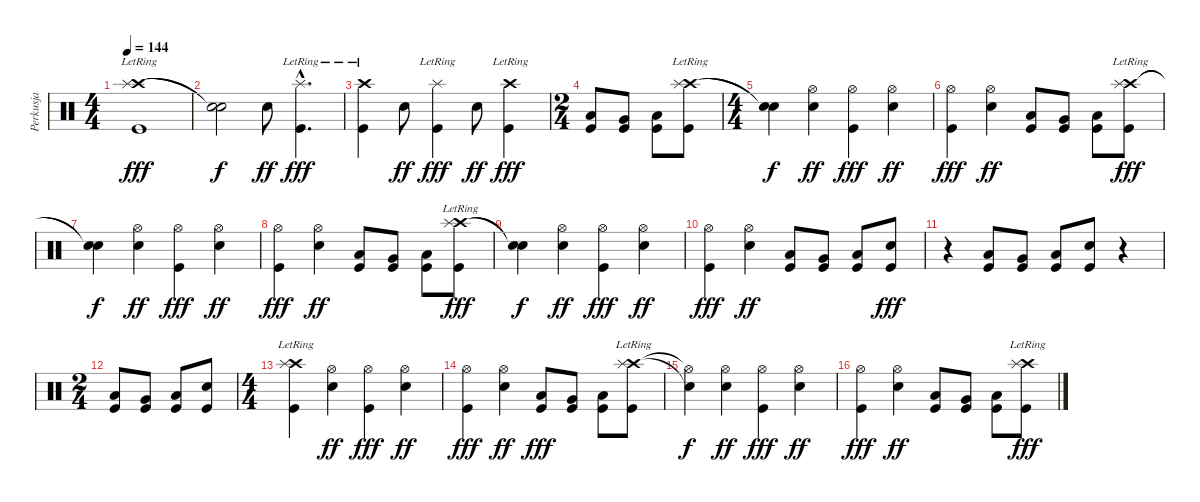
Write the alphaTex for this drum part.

\track ("Perkusja" "Perkusja") {instrument percussion}
\staff {score}
\articulation defaults
\ts (4 4)
\tempo 144
\clef neutral
\ks c
("Crash high (hit)"{lr} "Splash (hit)"{lr} "Kick (hit)").1{dy fff} |
("Snare (hit)"{t} "Snare (hit)"{t}).2{dy f} "Electric Snare (hit)".8{dy ff} ("Splash (hit)"{hac lr} "Kick (hit)"{hac}).4{d dy fff} |
("Crash high (hit)"{lr} "Kick (hit)").4 "Electric Snare (hit)".8{dy ff} ("Splash (hit)"{lr} "Kick (hit)").4{dy fff} "Electric Snare (hit)".8{dy ff} ("Crash high (hit)"{lr} "Kick (hit)").4{dy fff} |
\ts (2 4)
("Low Tom (hit)" "Kick (hit)").8 ("Very Low Tom (hit)" "Kick (hit)").8 ("Low Floor Tom (hit)" "Kick (hit)").8 ("Crash high (hit)"{lr} "Splash (hit)"{lr} "Kick (hit)").8 |
\ts (4 4)
("Snare (hit)"{t} "Snare (hit)"{t}).4{dy f} ("Hi-Hat (open)" "Electric Snare (hit)").4{dy ff} ("Hi-Hat (open)" "Kick (hit)").4{dy fff} ("Hi-Hat (open)" "Electric Snare (hit)").4{dy ff} |
("Hi-Hat (open)" "Kick (hit)").4{dy fff} ("Hi-Hat (open)" "Electric Snare (hit)").4{dy ff} ("Low Tom (hit)" "Kick (hit)").8 ("Very Low Tom (hit)" "Kick (hit)").8 ("Low Floor Tom (hit)" "Kick (hit)").8 ("Crash high (hit)"{lr} "Splash (hit)"{lr} "Kick (hit)").8{dy fff} |
("Snare (hit)"{t} "Snare (hit)"{t}).4{dy f} ("Hi-Hat (open)" "Electric Snare (hit)").4{dy ff} ("Hi-Hat (open)" "Kick (hit)").4{dy fff} ("Hi-Hat (open)" "Electric Snare (hit)").4{dy ff} |
("Hi-Hat (open)" "Kick (hit)").4{dy fff} ("Hi-Hat (open)" "Electric Snare (hit)").4{dy ff} ("Low Tom (hit)" "Kick (hit)").8 ("Very Low Tom (hit)" "Kick (hit)").8 ("Low Floor Tom (hit)" "Kick (hit)").8 ("Crash high (hit)"{lr} "Splash (hit)"{lr} "Kick (hit)").8{dy fff} |
("Snare (hit)"{t} "Snare (hit)"{t}).4{dy f} ("Hi-Hat (open)" "Electric Snare (hit)").4{dy ff} ("Hi-Hat (open)" "Kick (hit)").4{dy fff} ("Hi-Hat (open)" "Electric Snare (hit)").4{dy ff} |
("Hi-Hat (open)" "Kick (hit)").4{dy fff} ("Hi-Hat (open)" "Electric Snare (hit)").4{dy ff} ("Low Tom (hit)" "Kick (hit)").8 ("Very Low Tom (hit)" "Kick (hit)").8 ("Low Floor Tom (hit)" "Kick (hit)").8 ("Electric Snare (hit)" "Kick (hit)").8{dy fff} |
r.4 ("Low Tom (hit)" "Kick (hit)").8 ("Very Low Tom (hit)" "Kick (hit)").8 ("Low Floor Tom (hit)" "Kick (hit)").8 ("Electric Snare (hit)" "Kick (hit)").8 r.4 |
\ts (2 4)
("Low Tom (hit)" "Kick (hit)").8 ("Very Low Tom (hit)" "Kick (hit)").8 ("Low Floor Tom (hit)" "Kick (hit)").8 ("Electric Snare (hit)" "Kick (hit)").8 |
\ts (4 4)
("Crash high (hit)"{lr} "Splash (hit)"{lr} "Kick (hit)").4 ("Hi-Hat (open)" "Electric Snare (hit)").4{dy ff} ("Hi-Hat (open)" "Kick (hit)").4{dy fff} ("Hi-Hat (open)" "Electric Snare (hit)").4{dy ff} |
("Hi-Hat (open)" "Kick (hit)").4{dy fff} ("Hi-Hat (open)" "Electric Snare (hit)").4{dy ff} ("Low Tom (hit)" "Kick (hit)").8{dy fff} ("Very Low Tom (hit)" "Kick (hit)").8 ("Low Floor Tom (hit)" "Kick (hit)").8 ("Crash high (hit)"{lr} "Splash (hit)"{lr} "Kick (hit)").8 |
("Snare (hit)"{t} "Hi-Hat (open)"{t}).4{dy f} ("Hi-Hat (open)" "Electric Snare (hit)").4{dy ff} ("Hi-Hat (open)" "Kick (hit)").4{dy fff} ("Hi-Hat (open)" "Electric Snare (hit)").4{dy ff} |
("Hi-Hat (open)" "Kick (hit)").4{dy fff} ("Hi-Hat (open)" "Electric Snare (hit)").4{dy ff} ("Low Tom (hit)" "Kick (hit)").8 ("Very Low Tom (hit)" "Kick (hit)").8 ("Low Floor Tom (hit)" "Kick (hit)").8 ("Crash high (hit)"{lr} "Splash (hit)"{lr} "Kick (hit)").8{dy fff}
